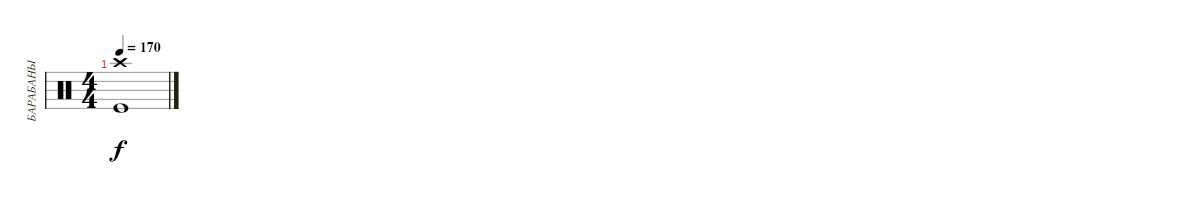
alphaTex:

\track ("БАРАБАНЫ" "БАРАБАНЫ") {instrument percussion}
\staff {score}
\articulation defaults
\ts (4 4)
\tempo 170
\clef neutral
\ks c
("Crash high (hit)" "Kick (hit)").1{dy f}
